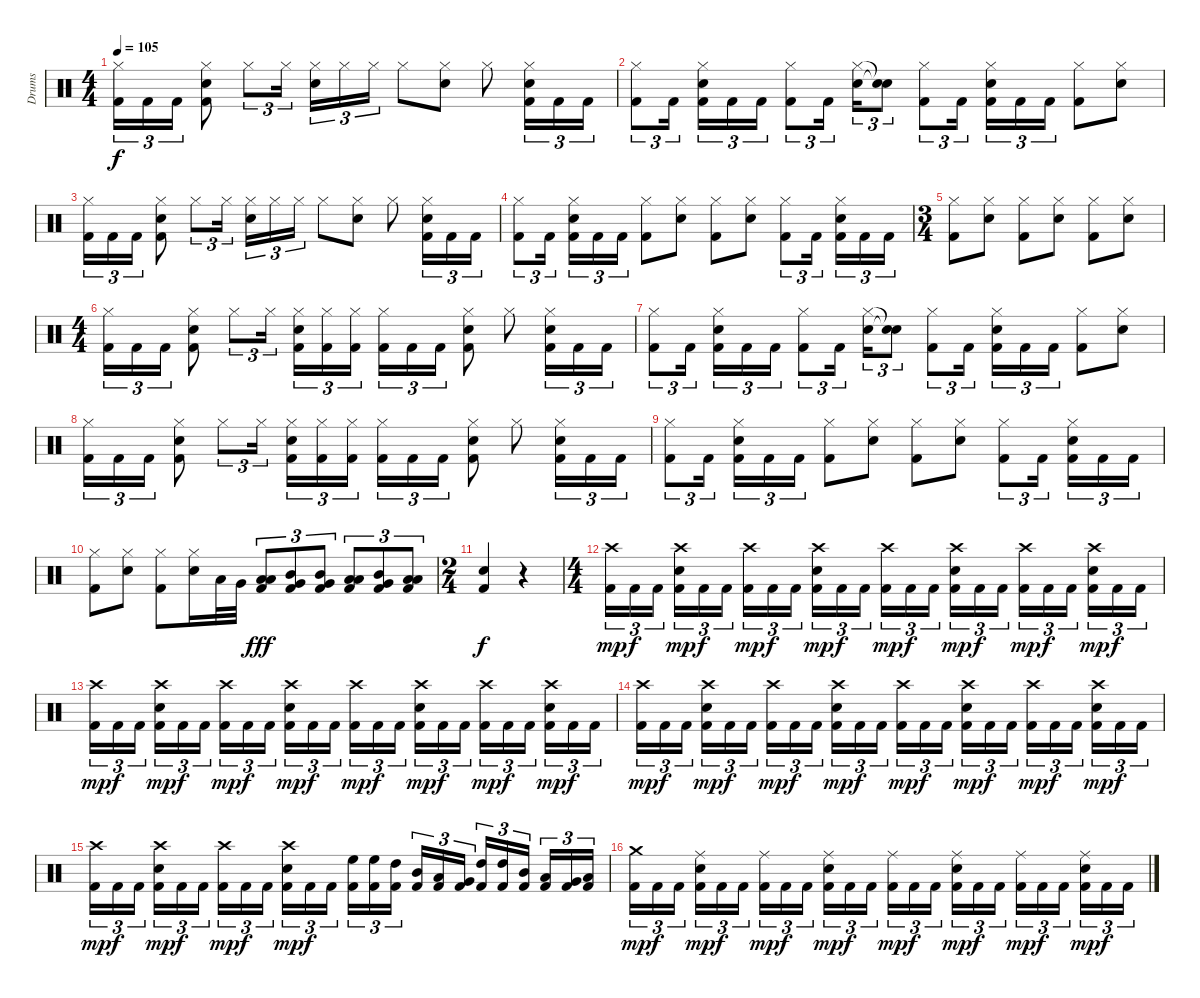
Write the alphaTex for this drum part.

\track ("Drums" "Drums") {instrument percussion}
\staff {score}
\articulation defaults
\ts (4 4)
\tempo 105
\clef neutral
\ks c
("Hi-Hat (closed)" "Kick (hit) 2").16{tu (3 2) dy f} "Kick (hit) 2".16{tu (3 2)} "Kick (hit) 2".16{tu (3 2)} ("Hi-Hat (closed)" "Electric Snare (hit)" "Kick (hit) 2").8 "Hi-Hat (closed)".8{tu (3 2)} "Hi-Hat (closed)".16{tu (3 2)} ("Hi-Hat (closed)" "Electric Snare (hit)").16{tu (3 2)} "Hi-Hat (closed)".16{tu (3 2)} "Hi-Hat (closed)".16{tu (3 2)} "Hi-Hat (closed)".8 ("Hi-Hat (closed)" "Electric Snare (hit)").8 "Hi-Hat (closed)".8 ("Hi-Hat (closed)" "Electric Snare (hit)" "Kick (hit) 2").16{tu (3 2)} "Kick (hit) 2".16{tu (3 2)} "Kick (hit) 2".16{tu (3 2)} |
("Hi-Hat (closed)" "Kick (hit) 2").8{tu (3 2)} "Kick (hit) 2".16{tu (3 2)} ("Hi-Hat (closed)" "Electric Snare (hit)" "Kick (hit) 2").16{tu (3 2)} "Kick (hit) 2".16{tu (3 2)} "Kick (hit) 2".16{tu (3 2)} ("Hi-Hat (closed)" "Kick (hit) 2").8{tu (3 2)} "Kick (hit) 2".16{tu (3 2)} ("Hi-Hat (closed)" "Electric Snare (hit)").16{tu (3 2)} ("Snare (hit)"{t} "Snare (hit)"{t}).8{tu (3 2)} ("Hi-Hat (closed)" "Kick (hit) 2").8{tu (3 2)} "Kick (hit) 2".16{tu (3 2)} ("Hi-Hat (closed)" "Electric Snare (hit)" "Kick (hit) 2").16{tu (3 2)} "Kick (hit) 2".16{tu (3 2)} "Kick (hit) 2".16{tu (3 2)} ("Hi-Hat (closed)" "Kick (hit) 2").8 ("Hi-Hat (closed)" "Electric Snare (hit)").8 |
("Hi-Hat (closed)" "Kick (hit) 2").16{tu (3 2)} "Kick (hit) 2".16{tu (3 2)} "Kick (hit) 2".16{tu (3 2)} ("Hi-Hat (closed)" "Electric Snare (hit)" "Kick (hit) 2").8 "Hi-Hat (closed)".8{tu (3 2)} "Hi-Hat (closed)".16{tu (3 2)} ("Hi-Hat (closed)" "Electric Snare (hit)").16{tu (3 2)} "Hi-Hat (closed)".16{tu (3 2)} "Hi-Hat (closed)".16{tu (3 2)} "Hi-Hat (closed)".8 ("Hi-Hat (closed)" "Electric Snare (hit)").8 "Hi-Hat (closed)".8 ("Hi-Hat (closed)" "Electric Snare (hit)" "Kick (hit) 2").16{tu (3 2)} "Kick (hit) 2".16{tu (3 2)} "Kick (hit) 2".16{tu (3 2)} |
("Hi-Hat (closed)" "Kick (hit) 2").8{tu (3 2)} "Kick (hit) 2".16{tu (3 2)} ("Hi-Hat (closed)" "Electric Snare (hit)" "Kick (hit) 2").16{tu (3 2)} "Kick (hit) 2".16{tu (3 2)} "Kick (hit) 2".16{tu (3 2)} ("Hi-Hat (closed)" "Kick (hit) 2").8 ("Hi-Hat (closed)" "Electric Snare (hit)").8 ("Hi-Hat (closed)" "Kick (hit) 2").8 ("Hi-Hat (closed)" "Electric Snare (hit)").8 ("Hi-Hat (closed)" "Kick (hit) 2").8{tu (3 2)} "Kick (hit) 2".16{tu (3 2)} ("Hi-Hat (closed)" "Electric Snare (hit)" "Kick (hit) 2").16{tu (3 2)} "Kick (hit) 2".16{tu (3 2)} "Kick (hit) 2".16{tu (3 2)} |
\ts (3 4)
("Hi-Hat (closed)" "Kick (hit) 2").8 ("Hi-Hat (closed)" "Electric Snare (hit)").8 ("Hi-Hat (closed)" "Kick (hit) 2").8 ("Hi-Hat (closed)" "Electric Snare (hit)").8 ("Hi-Hat (closed)" "Kick (hit) 2").8 ("Hi-Hat (closed)" "Electric Snare (hit)").8 |
\ts (4 4)
("Hi-Hat (closed)" "Kick (hit) 2").16{tu (3 2)} "Kick (hit) 2".16{tu (3 2)} "Kick (hit) 2".16{tu (3 2)} ("Hi-Hat (closed)" "Electric Snare (hit)" "Kick (hit) 2").8 "Hi-Hat (closed)".8{tu (3 2)} "Hi-Hat (closed)".16{tu (3 2)} ("Hi-Hat (closed)" "Electric Snare (hit)" "Kick (hit) 2").16{tu (3 2)} ("Hi-Hat (closed)" "Kick (hit) 2").16{tu (3 2)} ("Hi-Hat (closed)" "Kick (hit) 2").16{tu (3 2)} ("Hi-Hat (closed)" "Kick (hit) 2").16{tu (3 2)} "Kick (hit) 2".16{tu (3 2)} "Kick (hit) 2".16{tu (3 2)} ("Hi-Hat (closed)" "Electric Snare (hit)" "Kick (hit) 2").8 "Hi-Hat (closed)".8 ("Hi-Hat (closed)" "Electric Snare (hit)" "Kick (hit) 2").16{tu (3 2)} "Kick (hit) 2".16{tu (3 2)} "Kick (hit) 2".16{tu (3 2)} |
("Hi-Hat (closed)" "Kick (hit) 2").8{tu (3 2)} "Kick (hit) 2".16{tu (3 2)} ("Hi-Hat (closed)" "Electric Snare (hit)" "Kick (hit) 2").16{tu (3 2)} "Kick (hit) 2".16{tu (3 2)} "Kick (hit) 2".16{tu (3 2)} ("Hi-Hat (closed)" "Kick (hit) 2").8{tu (3 2)} "Kick (hit) 2".16{tu (3 2)} ("Hi-Hat (closed)" "Electric Snare (hit)").16{tu (3 2)} ("Snare (hit)"{t} "Snare (hit)"{t}).8{tu (3 2)} ("Hi-Hat (closed)" "Kick (hit) 2").8{tu (3 2)} "Kick (hit) 2".16{tu (3 2)} ("Hi-Hat (closed)" "Electric Snare (hit)" "Kick (hit) 2").16{tu (3 2)} "Kick (hit) 2".16{tu (3 2)} "Kick (hit) 2".16{tu (3 2)} ("Hi-Hat (closed)" "Kick (hit) 2").8 ("Hi-Hat (closed)" "Electric Snare (hit)").8 |
("Hi-Hat (closed)" "Kick (hit) 2").16{tu (3 2)} "Kick (hit) 2".16{tu (3 2)} "Kick (hit) 2".16{tu (3 2)} ("Hi-Hat (closed)" "Electric Snare (hit)" "Kick (hit) 2").8 "Hi-Hat (closed)".8{tu (3 2)} "Hi-Hat (closed)".16{tu (3 2)} ("Hi-Hat (closed)" "Electric Snare (hit)" "Kick (hit) 2").16{tu (3 2)} ("Hi-Hat (closed)" "Kick (hit) 2").16{tu (3 2)} ("Hi-Hat (closed)" "Kick (hit) 2").16{tu (3 2)} ("Hi-Hat (closed)" "Kick (hit) 2").16{tu (3 2)} "Kick (hit) 2".16{tu (3 2)} "Kick (hit) 2".16{tu (3 2)} ("Hi-Hat (closed)" "Electric Snare (hit)" "Kick (hit) 2").8 "Hi-Hat (closed)".8 ("Hi-Hat (closed)" "Electric Snare (hit)" "Kick (hit) 2").16{tu (3 2)} "Kick (hit) 2".16{tu (3 2)} "Kick (hit) 2".16{tu (3 2)} |
("Hi-Hat (closed)" "Kick (hit) 2").8{tu (3 2)} "Kick (hit) 2".16{tu (3 2)} ("Hi-Hat (closed)" "Electric Snare (hit)" "Kick (hit) 2").16{tu (3 2)} "Kick (hit) 2".16{tu (3 2)} "Kick (hit) 2".16{tu (3 2)} ("Hi-Hat (closed)" "Kick (hit) 2").8 ("Hi-Hat (closed)" "Electric Snare (hit)").8 ("Hi-Hat (closed)" "Kick (hit) 2").8 ("Hi-Hat (closed)" "Electric Snare (hit)").8 ("Hi-Hat (closed)" "Kick (hit) 2").8{tu (3 2)} "Kick (hit) 2".16{tu (3 2)} ("Hi-Hat (closed)" "Electric Snare (hit)" "Kick (hit) 2").16{tu (3 2)} "Kick (hit) 2".16{tu (3 2)} "Kick (hit) 2".16{tu (3 2)} |
("Hi-Hat (closed)" "Kick (hit) 2").8 ("Hi-Hat (closed)" "Electric Snare (hit)").8 ("Hi-Hat (closed)" "Kick (hit) 2").8 ("Hi-Hat (closed)" "Electric Snare (hit)").16 "Low Tom (hit)".32 "Very Low Tom (hit)".32 ("Low Tom (hit)" "Low Floor Tom (hit)" "Kick (hit) 2").8{tu (3 2) dy fff} ("Mid Tom (hit)" "Very Low Tom (hit)" "Kick (hit) 2").8{tu (3 2)} ("Mid Tom (hit)" "Very Low Tom (hit)" "Kick (hit) 2").8{tu (3 2)} ("Low Tom (hit)" "Low Floor Tom (hit)" "Kick (hit) 2").8{tu (3 2)} ("Mid Tom (hit)" "Very Low Tom (hit)" "Kick (hit) 2").8{tu (3 2)} ("Low Tom (hit)" "Low Floor Tom (hit)" "Kick (hit) 2").8{tu (3 2)} |
\ts (2 4)
("Electric Snare (hit)" "Kick (hit) 2").4{dy f} r.4 |
\ts (4 4)
("Crash high (hit)" "Kick (hit) 2").16{tu (3 2) dy mp} "Kick (hit) 2".16{tu (3 2) dy f} "Kick (hit) 2".16{tu (3 2)} ("Crash high (hit)" "Electric Snare (hit)" "Kick (hit) 2").16{tu (3 2) dy mp} "Kick (hit) 2".16{tu (3 2) dy f} "Kick (hit) 2".16{tu (3 2)} ("Crash high (hit)" "Kick (hit) 2").16{tu (3 2) dy mp} "Kick (hit) 2".16{tu (3 2) dy f} "Kick (hit) 2".16{tu (3 2)} ("Crash high (hit)" "Electric Snare (hit)" "Kick (hit) 2").16{tu (3 2) dy mp} "Kick (hit) 2".16{tu (3 2) dy f} "Kick (hit) 2".16{tu (3 2)} ("Crash high (hit)" "Kick (hit) 2").16{tu (3 2) dy mp} "Kick (hit) 2".16{tu (3 2) dy f} "Kick (hit) 2".16{tu (3 2)} ("Crash high (hit)" "Electric Snare (hit)" "Kick (hit) 2").16{tu (3 2) dy mp} "Kick (hit) 2".16{tu (3 2) dy f} "Kick (hit) 2".16{tu (3 2)} ("Crash high (hit)" "Kick (hit) 2").16{tu (3 2) dy mp} "Kick (hit) 2".16{tu (3 2) dy f} "Kick (hit) 2".16{tu (3 2)} ("Crash high (hit)" "Electric Snare (hit)" "Kick (hit) 2").16{tu (3 2) dy mp} "Kick (hit) 2".16{tu (3 2) dy f} "Kick (hit) 2".16{tu (3 2)} |
("Crash high (hit)" "Kick (hit) 2").16{tu (3 2) dy mp} "Kick (hit) 2".16{tu (3 2) dy f} "Kick (hit) 2".16{tu (3 2)} ("Crash high (hit)" "Electric Snare (hit)" "Kick (hit) 2").16{tu (3 2) dy mp} "Kick (hit) 2".16{tu (3 2) dy f} "Kick (hit) 2".16{tu (3 2)} ("Crash high (hit)" "Kick (hit) 2").16{tu (3 2) dy mp} "Kick (hit) 2".16{tu (3 2) dy f} "Kick (hit) 2".16{tu (3 2)} ("Crash high (hit)" "Electric Snare (hit)" "Kick (hit) 2").16{tu (3 2) dy mp} "Kick (hit) 2".16{tu (3 2) dy f} "Kick (hit) 2".16{tu (3 2)} ("Crash high (hit)" "Kick (hit) 2").16{tu (3 2) dy mp} "Kick (hit) 2".16{tu (3 2) dy f} "Kick (hit) 2".16{tu (3 2)} ("Crash high (hit)" "Electric Snare (hit)" "Kick (hit) 2").16{tu (3 2) dy mp} "Kick (hit) 2".16{tu (3 2) dy f} "Kick (hit) 2".16{tu (3 2)} ("Crash high (hit)" "Kick (hit) 2").16{tu (3 2) dy mp} "Kick (hit) 2".16{tu (3 2) dy f} "Kick (hit) 2".16{tu (3 2)} ("Crash high (hit)" "Electric Snare (hit)" "Kick (hit) 2").16{tu (3 2) dy mp} "Kick (hit) 2".16{tu (3 2) dy f} "Kick (hit) 2".16{tu (3 2)} |
("Crash high (hit)" "Kick (hit) 2").16{tu (3 2) dy mp} "Kick (hit) 2".16{tu (3 2) dy f} "Kick (hit) 2".16{tu (3 2)} ("Crash high (hit)" "Electric Snare (hit)" "Kick (hit) 2").16{tu (3 2) dy mp} "Kick (hit) 2".16{tu (3 2) dy f} "Kick (hit) 2".16{tu (3 2)} ("Crash high (hit)" "Kick (hit) 2").16{tu (3 2) dy mp} "Kick (hit) 2".16{tu (3 2) dy f} "Kick (hit) 2".16{tu (3 2)} ("Crash high (hit)" "Electric Snare (hit)" "Kick (hit) 2").16{tu (3 2) dy mp} "Kick (hit) 2".16{tu (3 2) dy f} "Kick (hit) 2".16{tu (3 2)} ("Crash high (hit)" "Kick (hit) 2").16{tu (3 2) dy mp} "Kick (hit) 2".16{tu (3 2) dy f} "Kick (hit) 2".16{tu (3 2)} ("Crash high (hit)" "Electric Snare (hit)" "Kick (hit) 2").16{tu (3 2) dy mp} "Kick (hit) 2".16{tu (3 2) dy f} "Kick (hit) 2".16{tu (3 2)} ("Crash high (hit)" "Kick (hit) 2").16{tu (3 2) dy mp} "Kick (hit) 2".16{tu (3 2) dy f} "Kick (hit) 2".16{tu (3 2)} ("Crash high (hit)" "Electric Snare (hit)" "Kick (hit) 2").16{tu (3 2) dy mp} "Kick (hit) 2".16{tu (3 2) dy f} "Kick (hit) 2".16{tu (3 2)} |
("Crash high (hit)" "Kick (hit) 2").16{tu (3 2) dy mp} "Kick (hit) 2".16{tu (3 2) dy f} "Kick (hit) 2".16{tu (3 2)} ("Crash high (hit)" "Electric Snare (hit)" "Kick (hit) 2").16{tu (3 2) dy mp} "Kick (hit) 2".16{tu (3 2) dy f} "Kick (hit) 2".16{tu (3 2)} ("Crash high (hit)" "Kick (hit) 2").16{tu (3 2) dy mp} "Kick (hit) 2".16{tu (3 2) dy f} "Kick (hit) 2".16{tu (3 2)} ("Crash high (hit)" "Electric Snare (hit)" "Kick (hit) 2").16{tu (3 2) dy mp} "Kick (hit) 2".16{tu (3 2) dy f} "Kick (hit) 2".16{tu (3 2)} ("High Floor Tom (hit)" "Kick (hit) 2").16{tu (3 2)} ("High Floor Tom (hit)" "Kick (hit) 2").16{tu (3 2)} ("High Tom (hit)" "Kick (hit) 2").16{tu (3 2)} ("Mid Tom (hit)" "Kick (hit) 2").16{tu (3 2)} ("Low Tom (hit)" "Kick (hit) 2").16{tu (3 2)} ("Very Low Tom (hit)" "Kick (hit) 2").16{tu (3 2)} ("High Tom (hit)" "Kick (hit) 2").16{tu (3 2)} ("High Tom (hit)" "Kick (hit) 2").16{tu (3 2)} ("Mid Tom (hit)" "Kick (hit) 2").16{tu (3 2)} ("Low Tom (hit)" "Kick (hit) 2").16{tu (3 2)} ("Very Low Tom (hit)" "Kick (hit) 2").16{tu (3 2)} ("Low Floor Tom (hit)" "Kick (hit) 2").16{tu (3 2)} |
("Crash medium (hit)" "Kick (hit) 2").16{tu (3 2) dy mp} "Kick (hit) 2".16{tu (3 2) dy f} "Kick (hit) 2".16{tu (3 2)} ("Ride (middle)" "Electric Snare (hit)" "Kick (hit) 2").16{tu (3 2) dy mp} "Kick (hit) 2".16{tu (3 2) dy f} "Kick (hit) 2".16{tu (3 2)} ("Ride (middle)" "Kick (hit) 2").16{tu (3 2) dy mp} "Kick (hit) 2".16{tu (3 2) dy f} "Kick (hit) 2".16{tu (3 2)} ("Ride (middle)" "Electric Snare (hit)" "Kick (hit) 2").16{tu (3 2) dy mp} "Kick (hit) 2".16{tu (3 2) dy f} "Kick (hit) 2".16{tu (3 2)} ("Ride (middle)" "Kick (hit) 2").16{tu (3 2) dy mp} "Kick (hit) 2".16{tu (3 2) dy f} "Kick (hit) 2".16{tu (3 2)} ("Ride (middle)" "Electric Snare (hit)" "Kick (hit) 2").16{tu (3 2) dy mp} "Kick (hit) 2".16{tu (3 2) dy f} "Kick (hit) 2".16{tu (3 2)} ("Ride (middle)" "Kick (hit) 2").16{tu (3 2) dy mp} "Kick (hit) 2".16{tu (3 2) dy f} "Kick (hit) 2".16{tu (3 2)} ("Ride (middle)" "Electric Snare (hit)" "Kick (hit) 2").16{tu (3 2) dy mp} "Kick (hit) 2".16{tu (3 2) dy f} "Kick (hit) 2".16{tu (3 2)}
